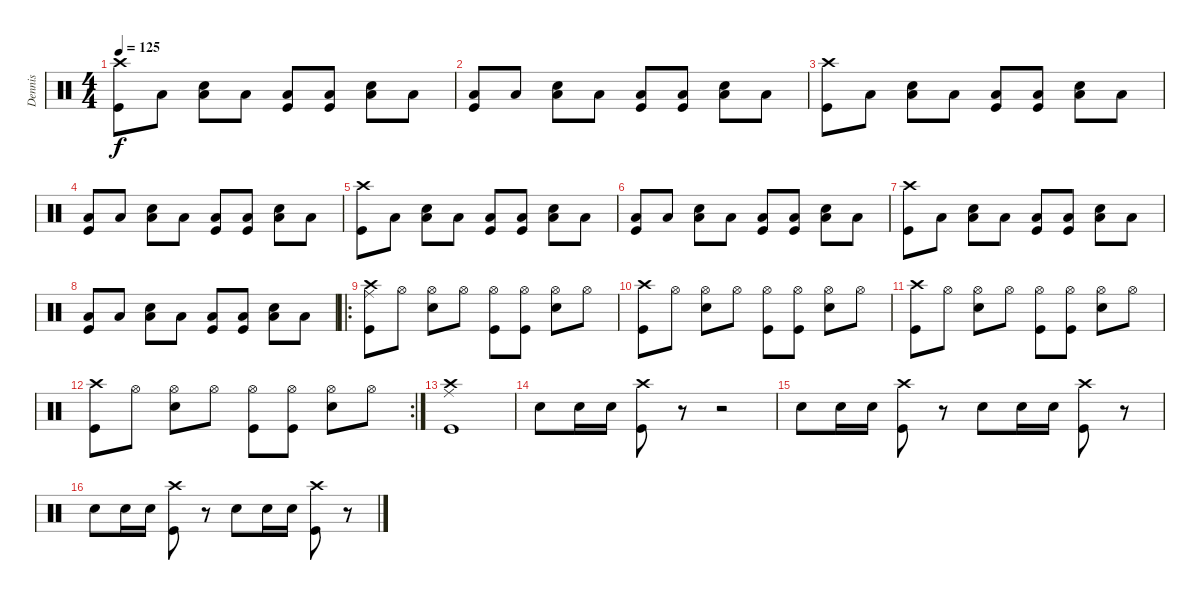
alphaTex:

\track ("Dennis" "Dennis") {instrument percussion}
\staff {score}
\articulation defaults
\ts (4 4)
\tempo 125
\clef neutral
\ks c
("Kick (hit)" "Crash high (hit)").8{dy f} "Low Floor Tom (hit)".8 ("Electric Snare (hit)" "Low Floor Tom (hit)").8 "Low Floor Tom (hit)".8 ("Kick (hit)" "Low Floor Tom (hit)").8 ("Kick (hit)" "Low Floor Tom (hit)").8 ("Electric Snare (hit)" "Low Floor Tom (hit)").8 "Low Floor Tom (hit)".8 |
("Kick (hit)" "Low Floor Tom (hit)").8 "Low Floor Tom (hit)".8 ("Electric Snare (hit)" "Low Floor Tom (hit)").8 "Low Floor Tom (hit)".8 ("Kick (hit)" "Low Floor Tom (hit)").8 ("Kick (hit)" "Low Floor Tom (hit)").8 ("Electric Snare (hit)" "Low Floor Tom (hit)").8 "Low Floor Tom (hit)".8 |
("Kick (hit)" "Crash high (hit)").8 "Low Floor Tom (hit)".8 ("Electric Snare (hit)" "Low Floor Tom (hit)").8 "Low Floor Tom (hit)".8 ("Kick (hit)" "Low Floor Tom (hit)").8 ("Kick (hit)" "Low Floor Tom (hit)").8 ("Electric Snare (hit)" "Low Floor Tom (hit)").8 "Low Floor Tom (hit)".8 |
("Kick (hit)" "Low Floor Tom (hit)").8 "Low Floor Tom (hit)".8 ("Electric Snare (hit)" "Low Floor Tom (hit)").8 "Low Floor Tom (hit)".8 ("Kick (hit)" "Low Floor Tom (hit)").8 ("Kick (hit)" "Low Floor Tom (hit)").8 ("Electric Snare (hit)" "Low Floor Tom (hit)").8 "Low Floor Tom (hit)".8 |
("Kick (hit)" "Crash high (hit)").8 "Low Floor Tom (hit)".8 ("Electric Snare (hit)" "Low Floor Tom (hit)").8 "Low Floor Tom (hit)".8 ("Kick (hit)" "Low Floor Tom (hit)").8 ("Kick (hit)" "Low Floor Tom (hit)").8 ("Electric Snare (hit)" "Low Floor Tom (hit)").8 "Low Floor Tom (hit)".8 |
("Kick (hit)" "Low Floor Tom (hit)").8 "Low Floor Tom (hit)".8 ("Electric Snare (hit)" "Low Floor Tom (hit)").8 "Low Floor Tom (hit)".8 ("Kick (hit)" "Low Floor Tom (hit)").8 ("Kick (hit)" "Low Floor Tom (hit)").8 ("Electric Snare (hit)" "Low Floor Tom (hit)").8 "Low Floor Tom (hit)".8 |
("Kick (hit)" "Crash high (hit)").8 "Low Floor Tom (hit)".8 ("Electric Snare (hit)" "Low Floor Tom (hit)").8 "Low Floor Tom (hit)".8 ("Kick (hit)" "Low Floor Tom (hit)").8 ("Kick (hit)" "Low Floor Tom (hit)").8 ("Electric Snare (hit)" "Low Floor Tom (hit)").8 "Low Floor Tom (hit)".8 |
("Kick (hit)" "Low Floor Tom (hit)").8 "Low Floor Tom (hit)".8 ("Electric Snare (hit)" "Low Floor Tom (hit)").8 "Low Floor Tom (hit)".8 ("Kick (hit)" "Low Floor Tom (hit)").8 ("Kick (hit)" "Low Floor Tom (hit)").8 ("Electric Snare (hit)" "Low Floor Tom (hit)").8 "Low Floor Tom (hit)".8 |
\ro
("Kick (hit)" "Crash high (hit)" "Ride (middle)").8 "Hi-Hat (open)".8 ("Hi-Hat (open)" "Electric Snare (hit)").8 "Hi-Hat (open)".8 ("Hi-Hat (open)" "Kick (hit)").8 ("Hi-Hat (open)" "Kick (hit)").8 ("Hi-Hat (open)" "Electric Snare (hit)").8 "Hi-Hat (open)".8 |
("Kick (hit)" "Crash high (hit)").8 "Hi-Hat (open)".8 ("Hi-Hat (open)" "Electric Snare (hit)").8 "Hi-Hat (open)".8 ("Hi-Hat (open)" "Kick (hit)").8 ("Hi-Hat (open)" "Kick (hit)").8 ("Hi-Hat (open)" "Electric Snare (hit)").8 "Hi-Hat (open)".8 |
("Kick (hit)" "Crash high (hit)").8 "Hi-Hat (open)".8 ("Hi-Hat (open)" "Electric Snare (hit)").8 "Hi-Hat (open)".8 ("Hi-Hat (open)" "Kick (hit)").8 ("Hi-Hat (open)" "Kick (hit)").8 ("Hi-Hat (open)" "Electric Snare (hit)").8 "Hi-Hat (open)".8 |
\rc 2
("Kick (hit)" "Crash high (hit)").8 "Hi-Hat (open)".8 ("Hi-Hat (open)" "Electric Snare (hit)").8 "Hi-Hat (open)".8 ("Hi-Hat (open)" "Kick (hit)").8 ("Hi-Hat (open)" "Kick (hit)").8 ("Hi-Hat (open)" "Electric Snare (hit)").8 "Hi-Hat (open)".8 |
("Kick (hit)" "Crash high (hit)" "Ride (middle)").1 |
"Electric Snare (hit)".8 "Electric Snare (hit)".16 "Electric Snare (hit)".16 ("Crash high (hit)" "Kick (hit)").8 r.8 r.2 |
"Electric Snare (hit)".8 "Electric Snare (hit)".16 "Electric Snare (hit)".16 ("Crash high (hit)" "Kick (hit)").8 r.8 "Electric Snare (hit)".8 "Electric Snare (hit)".16 "Electric Snare (hit)".16 ("Crash high (hit)" "Kick (hit)").8 r.8 |
"Electric Snare (hit)".8 "Electric Snare (hit)".16 "Electric Snare (hit)".16 ("Crash high (hit)" "Kick (hit)").8 r.8 "Electric Snare (hit)".8 "Electric Snare (hit)".16 "Electric Snare (hit)".16 ("Crash high (hit)" "Kick (hit)").8 r.8
